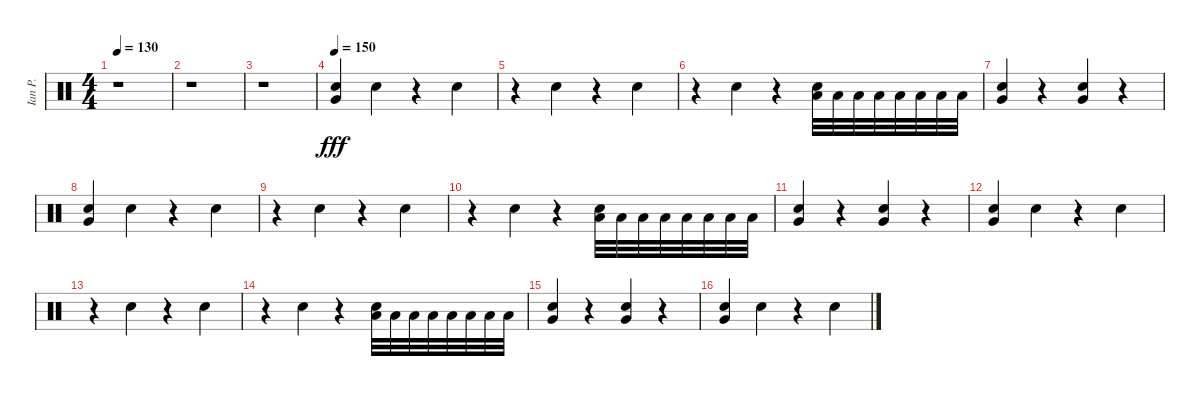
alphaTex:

\track ("Ian P." "Ian P.") {instrument percussion}
\staff {score}
\articulation defaults
\ts (4 4)
\tempo 130
\clef neutral
\ks c
r.1{dy fff} |
r.1 |
r.1 |
\tempo 150
("Very Low Tom (hit)" "Electric Snare (hit)").4 "Electric Snare (hit)".4 r.4 "Electric Snare (hit)".4 |
r.4 "Electric Snare (hit)".4 r.4 "Electric Snare (hit)".4 |
r.4 "Electric Snare (hit)".4 r.4 ("Electric Snare (hit)" "Low Floor Tom (hit)").32 "Low Floor Tom (hit)".32 "Low Floor Tom (hit)".32 "Low Floor Tom (hit)".32 "Low Floor Tom (hit)".32 "Low Floor Tom (hit)".32 "Low Floor Tom (hit)".32 "Low Floor Tom (hit)".32 |
("Very Low Tom (hit)" "Electric Snare (hit)").4 r.4 ("Very Low Tom (hit)" "Electric Snare (hit)").4 r.4 |
("Very Low Tom (hit)" "Electric Snare (hit)").4 "Electric Snare (hit)".4 r.4 "Electric Snare (hit)".4 |
r.4 "Electric Snare (hit)".4 r.4 "Electric Snare (hit)".4 |
r.4 "Electric Snare (hit)".4 r.4 ("Electric Snare (hit)" "Low Floor Tom (hit)").32 "Low Floor Tom (hit)".32 "Low Floor Tom (hit)".32 "Low Floor Tom (hit)".32 "Low Floor Tom (hit)".32 "Low Floor Tom (hit)".32 "Low Floor Tom (hit)".32 "Low Floor Tom (hit)".32 |
("Very Low Tom (hit)" "Electric Snare (hit)").4 r.4 ("Very Low Tom (hit)" "Electric Snare (hit)").4 r.4 |
("Very Low Tom (hit)" "Electric Snare (hit)").4 "Electric Snare (hit)".4 r.4 "Electric Snare (hit)".4 |
r.4 "Electric Snare (hit)".4 r.4 "Electric Snare (hit)".4 |
r.4 "Electric Snare (hit)".4 r.4 ("Electric Snare (hit)" "Low Floor Tom (hit)").32 "Low Floor Tom (hit)".32 "Low Floor Tom (hit)".32 "Low Floor Tom (hit)".32 "Low Floor Tom (hit)".32 "Low Floor Tom (hit)".32 "Low Floor Tom (hit)".32 "Low Floor Tom (hit)".32 |
("Very Low Tom (hit)" "Electric Snare (hit)").4 r.4 ("Very Low Tom (hit)" "Electric Snare (hit)").4 r.4 |
("Very Low Tom (hit)" "Electric Snare (hit)").4 "Electric Snare (hit)".4 r.4 "Electric Snare (hit)".4
